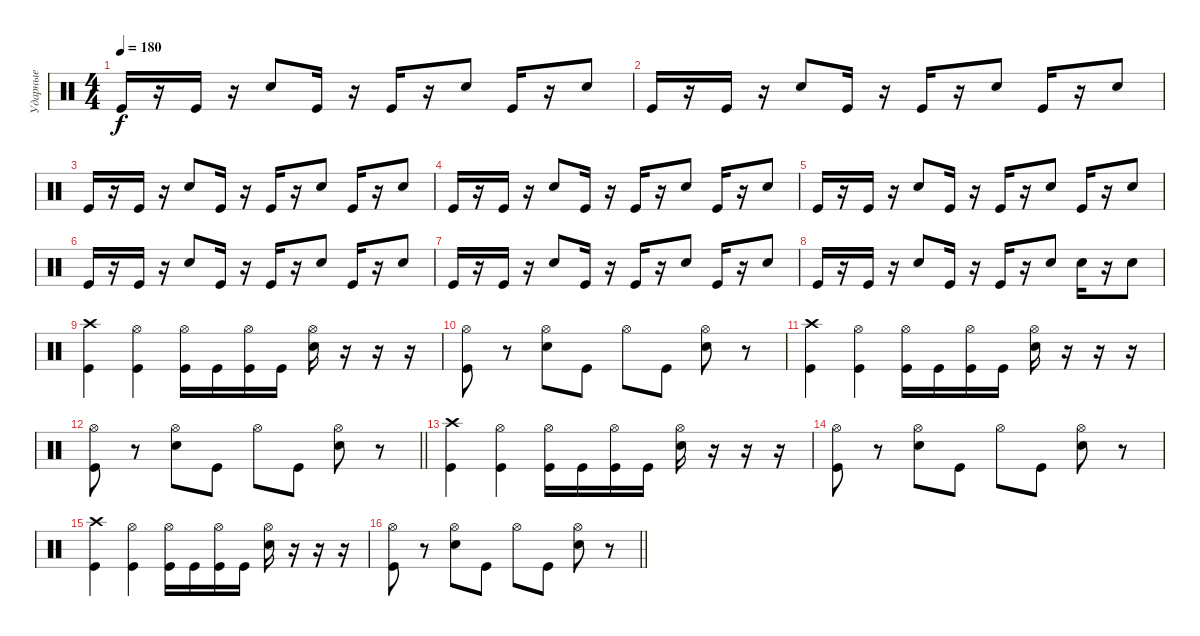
\track ("Ударные" "Ударные") {instrument percussion}
\staff {score}
\articulation defaults
\ts (4 4)
\tempo 180
\clef neutral
\ks c "Kick (hit)".16{dy f}
r.16 "Kick (hit)".16 r.16 "Snare (hit) 2".8 "Kick (hit)".16 r.16 "Kick (hit)".16 r.16 "Snare (hit) 2".8 "Kick (hit)".16 r.16 "Snare (hit) 2".8 |
"Kick (hit)".16 r.16 "Kick (hit)".16 r.16 "Snare (hit) 2".8 "Kick (hit)".16 r.16 "Kick (hit)".16 r.16 "Snare (hit) 2".8 "Kick (hit)".16 r.16 "Snare (hit) 2".8 |
"Kick (hit)".16 r.16 "Kick (hit)".16 r.16 "Snare (hit) 2".8 "Kick (hit)".16 r.16 "Kick (hit)".16 r.16 "Snare (hit) 2".8 "Kick (hit)".16 r.16 "Snare (hit) 2".8 |
"Kick (hit)".16 r.16 "Kick (hit)".16 r.16 "Snare (hit) 2".8 "Kick (hit)".16 r.16 "Kick (hit)".16 r.16 "Snare (hit) 2".8 "Kick (hit)".16 r.16 "Snare (hit) 2".8 |
"Kick (hit)".16 r.16 "Kick (hit)".16 r.16 "Snare (hit) 2".8 "Kick (hit)".16 r.16 "Kick (hit)".16 r.16 "Snare (hit) 2".8 "Kick (hit)".16 r.16 "Snare (hit) 2".8 |
"Kick (hit)".16 r.16 "Kick (hit)".16 r.16 "Snare (hit) 2".8 "Kick (hit)".16 r.16 "Kick (hit)".16 r.16 "Snare (hit) 2".8 "Kick (hit)".16 r.16 "Snare (hit) 2".8 |
"Kick (hit)".16 r.16 "Kick (hit)".16 r.16 "Snare (hit) 2".8 "Kick (hit)".16 r.16 "Kick (hit)".16 r.16 "Snare (hit) 2".8 "Kick (hit)".16 r.16 "Snare (hit) 2".8 |
"Kick (hit)".16 r.16 "Kick (hit)".16 r.16 "Snare (hit) 2".8 "Kick (hit)".16 r.16 "Kick (hit)".16 r.16 "Snare (hit) 2".8 "Snare (hit) 2".16 r.16 "Snare (hit) 2".8 |
("Kick (hit)" "Crash high (hit)").4 ("Kick (hit)" "Hi-Hat (open)").4 ("Hi-Hat (open)" "Kick (hit)").16 "Kick (hit)".16 ("Hi-Hat (open)" "Kick (hit)").16 "Kick (hit)".16 ("Hi-Hat (open)" "Snare (hit) 2").16 r.16 r.16 r.16 |
("Hi-Hat (open)" "Kick (hit)").8 r.8 ("Hi-Hat (open)" "Snare (hit) 2").8 "Kick (hit)".8 "Hi-Hat (open)".8 "Kick (hit)".8 ("Hi-Hat (open)" "Snare (hit) 2").8 r.8 |
("Kick (hit)" "Crash high (hit)").4 ("Kick (hit)" "Hi-Hat (open)").4 ("Hi-Hat (open)" "Kick (hit)").16 "Kick (hit)".16 ("Hi-Hat (open)" "Kick (hit)").16 "Kick (hit)".16 ("Hi-Hat (open)" "Snare (hit) 2").16 r.16 r.16 r.16 |
\barLineRight lightlight
("Hi-Hat (open)" "Kick (hit)").8 r.8 ("Hi-Hat (open)" "Snare (hit) 2").8 "Kick (hit)".8 "Hi-Hat (open)".8 "Kick (hit)".8 ("Hi-Hat (open)" "Snare (hit) 2").8 r.8 |
("Kick (hit)" "Crash high (hit)").4 ("Kick (hit)" "Hi-Hat (open)").4 ("Hi-Hat (open)" "Kick (hit)").16 "Kick (hit)".16 ("Hi-Hat (open)" "Kick (hit)").16 "Kick (hit)".16 ("Hi-Hat (open)" "Snare (hit) 2").16 r.16 r.16 r.16 |
("Hi-Hat (open)" "Kick (hit)").8 r.8 ("Hi-Hat (open)" "Snare (hit) 2").8 "Kick (hit)".8 "Hi-Hat (open)".8 "Kick (hit)".8 ("Hi-Hat (open)" "Snare (hit) 2").8 r.8 |
("Kick (hit)" "Crash high (hit)").4 ("Kick (hit)" "Hi-Hat (open)").4 ("Hi-Hat (open)" "Kick (hit)").16 "Kick (hit)".16 ("Hi-Hat (open)" "Kick (hit)").16 "Kick (hit)".16 ("Hi-Hat (open)" "Snare (hit) 2").16 r.16 r.16 r.16 |
\barLineRight lightlight
("Hi-Hat (open)" "Kick (hit)").8 r.8 ("Hi-Hat (open)" "Snare (hit) 2").8 "Kick (hit)".8 "Hi-Hat (open)".8 "Kick (hit)".8 ("Hi-Hat (open)" "Snare (hit) 2").8 r.8
